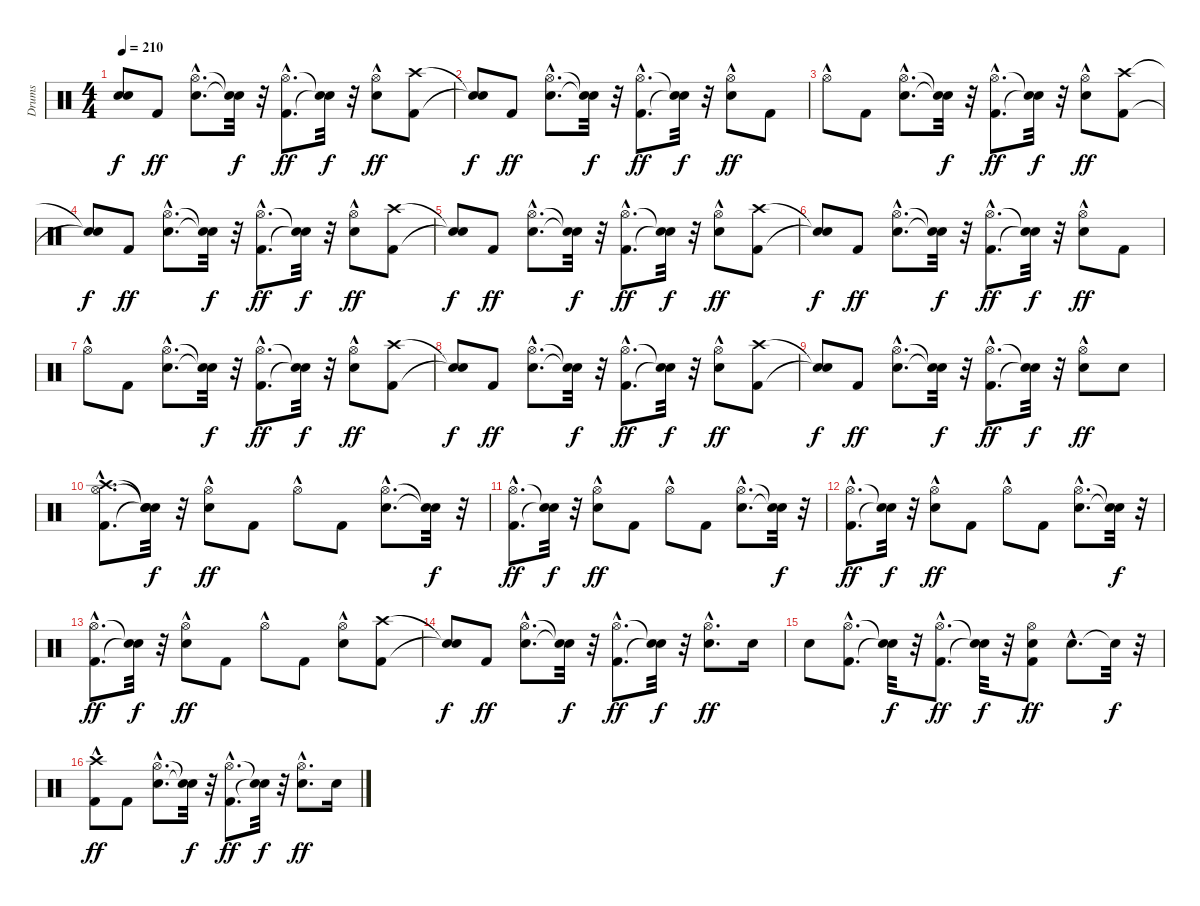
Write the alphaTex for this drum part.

\track ("Drums" "Drums") {instrument percussion}
\staff {score}
\articulation defaults
\ts (4 4)
\tempo 210
\clef neutral
\ks c
("Snare (hit)"{t} "Snare (hit)"{t}).8{dy f} "Kick (hit) 2".8{dy ff} ("Snare (hit) 2"{hac} "Hi-Hat (open)"{hac}).8{d} ("Snare (hit)"{t} "Snare (hit)"{t}).32{dy f} r.32 ("Kick (hit) 2"{hac} "Hi-Hat (open)"{hac}).8{d dy ff} ("Snare (hit)"{t} "Snare (hit)"{t}).32{dy f} r.32 ("Snare (hit) 2" "Hi-Hat (open)"{hac}).8{dy ff} ("Kick (hit) 2" "Crash high (hit)").8 |
("Snare (hit)"{t} "Snare (hit)"{t}).8{dy f} "Kick (hit) 2".8{dy ff} ("Snare (hit) 2"{hac} "Hi-Hat (open)"{hac}).8{d} ("Snare (hit)"{t} "Snare (hit)"{t}).32{dy f} r.32 ("Kick (hit) 2"{hac} "Hi-Hat (open)"{hac}).8{d dy ff} ("Snare (hit)"{t} "Snare (hit)"{t}).32{dy f} r.32 ("Snare (hit) 2" "Hi-Hat (open)"{hac}).8{dy ff} "Kick (hit) 2".8 |
"Hi-Hat (open)"{hac}.8 "Kick (hit) 2".8 ("Snare (hit) 2"{hac} "Hi-Hat (open)"{hac}).8{d} ("Snare (hit)"{t} "Snare (hit)"{t}).32{dy f} r.32 ("Kick (hit) 2"{hac} "Hi-Hat (open)"{hac}).8{d dy ff} ("Snare (hit)"{t} "Snare (hit)"{t}).32{dy f} r.32 ("Snare (hit) 2" "Hi-Hat (open)"{hac}).8{dy ff} ("Kick (hit) 2" "Crash high (hit)").8 |
("Snare (hit)"{t} "Snare (hit)"{t}).8{dy f} "Kick (hit) 2".8{dy ff} ("Snare (hit) 2"{hac} "Hi-Hat (open)"{hac}).8{d} ("Snare (hit)"{t} "Snare (hit)"{t}).32{dy f} r.32 ("Kick (hit) 2"{hac} "Hi-Hat (open)"{hac}).8{d dy ff} ("Snare (hit)"{t} "Snare (hit)"{t}).32{dy f} r.32 ("Snare (hit) 2" "Hi-Hat (open)"{hac}).8{dy ff} ("Kick (hit) 2" "Crash high (hit)").8 |
("Snare (hit)"{t} "Snare (hit)"{t}).8{dy f} "Kick (hit) 2".8{dy ff} ("Snare (hit) 2"{hac} "Hi-Hat (open)"{hac}).8{d} ("Snare (hit)"{t} "Snare (hit)"{t}).32{dy f} r.32 ("Kick (hit) 2"{hac} "Hi-Hat (open)"{hac}).8{d dy ff} ("Snare (hit)"{t} "Snare (hit)"{t}).32{dy f} r.32 ("Snare (hit) 2" "Hi-Hat (open)"{hac}).8{dy ff} ("Kick (hit) 2" "Crash high (hit)").8 |
("Snare (hit)"{t} "Snare (hit)"{t}).8{dy f} "Kick (hit) 2".8{dy ff} ("Snare (hit) 2"{hac} "Hi-Hat (open)"{hac}).8{d} ("Snare (hit)"{t} "Snare (hit)"{t}).32{dy f} r.32 ("Kick (hit) 2"{hac} "Hi-Hat (open)"{hac}).8{d dy ff} ("Snare (hit)"{t} "Snare (hit)"{t}).32{dy f} r.32 ("Snare (hit) 2" "Hi-Hat (open)"{hac}).8{dy ff} "Kick (hit) 2".8 |
"Hi-Hat (open)"{hac}.8 "Kick (hit) 2".8 ("Snare (hit) 2"{hac} "Hi-Hat (open)"{hac}).8{d} ("Snare (hit)"{t} "Snare (hit)"{t}).32{dy f} r.32 ("Kick (hit) 2"{hac} "Hi-Hat (open)"{hac}).8{d dy ff} ("Snare (hit)"{t} "Snare (hit)"{t}).32{dy f} r.32 ("Snare (hit) 2" "Hi-Hat (open)"{hac}).8{dy ff} ("Kick (hit) 2" "Crash high (hit)").8 |
("Snare (hit)"{t} "Snare (hit)"{t}).8{dy f} "Kick (hit) 2".8{dy ff} ("Snare (hit) 2"{hac} "Hi-Hat (open)"{hac}).8{d} ("Snare (hit)"{t} "Snare (hit)"{t}).32{dy f} r.32 ("Kick (hit) 2"{hac} "Hi-Hat (open)"{hac}).8{d dy ff} ("Snare (hit)"{t} "Snare (hit)"{t}).32{dy f} r.32 ("Snare (hit) 2" "Hi-Hat (open)"{hac}).8{dy ff} ("Kick (hit) 2" "Crash high (hit)").8 |
("Snare (hit)"{t} "Snare (hit)"{t}).8{dy f} "Kick (hit) 2".8{dy ff} ("Snare (hit) 2"{hac} "Hi-Hat (open)"{hac}).8{d} ("Snare (hit)"{t} "Snare (hit)"{t}).32{dy f} r.32 ("Kick (hit) 2"{hac} "Hi-Hat (open)"{hac}).8{d dy ff} ("Snare (hit)"{t} "Snare (hit)"{t}).32{dy f} r.32 ("Snare (hit) 2" "Hi-Hat (open)"{hac}).8{dy ff} "Snare (hit) 2".8 |
("Kick (hit) 2"{hac} "Hi-Hat (open)"{hac} "Crash high (hit)"{hac}).8{d} ("Snare (hit)"{t} "Snare (hit)"{t} "Snare (hit)"{t}).32{dy f} r.32 ("Snare (hit) 2" "Hi-Hat (open)"{hac}).8{dy ff} "Kick (hit) 2".8 "Hi-Hat (open)"{hac}.8 "Kick (hit) 2".8 ("Snare (hit) 2"{hac} "Hi-Hat (open)"{hac}).8{d} ("Snare (hit)"{t} "Snare (hit)"{t}).32{dy f} r.32 |
("Kick (hit) 2"{hac} "Hi-Hat (open)"{hac}).8{d dy ff} ("Snare (hit)"{t} "Snare (hit)"{t}).32{dy f} r.32 ("Snare (hit) 2" "Hi-Hat (open)"{hac}).8{dy ff} "Kick (hit) 2".8 "Hi-Hat (open)"{hac}.8 "Kick (hit) 2".8 ("Snare (hit) 2"{hac} "Hi-Hat (open)"{hac}).8{d} ("Snare (hit)"{t} "Snare (hit)"{t}).32{dy f} r.32 |
("Kick (hit) 2"{hac} "Hi-Hat (open)"{hac}).8{d dy ff} ("Snare (hit)"{t} "Snare (hit)"{t}).32{dy f} r.32 ("Snare (hit) 2" "Hi-Hat (open)"{hac}).8{dy ff} "Kick (hit) 2".8 "Hi-Hat (open)"{hac}.8 "Kick (hit) 2".8 ("Snare (hit) 2"{hac} "Hi-Hat (open)"{hac}).8{d} ("Snare (hit)"{t} "Snare (hit)"{t}).32{dy f} r.32 |
("Kick (hit) 2"{hac} "Hi-Hat (open)"{hac}).8{d dy ff} ("Snare (hit)"{t} "Snare (hit)"{t}).32{dy f} r.32 ("Snare (hit) 2" "Hi-Hat (open)"{hac}).8{dy ff} "Kick (hit) 2".8 "Hi-Hat (open)"{hac}.8 "Kick (hit) 2".8 ("Snare (hit) 2" "Hi-Hat (open)"{hac}).8 ("Kick (hit) 2" "Crash high (hit)").8 |
("Snare (hit)"{t} "Snare (hit)"{t}).8{dy f} "Kick (hit) 2".8{dy ff} ("Snare (hit) 2"{hac} "Hi-Hat (open)"{hac}).8{d} ("Snare (hit)"{t} "Snare (hit)"{t}).32{dy f} r.32 ("Kick (hit) 2"{hac} "Hi-Hat (open)"{hac}).8{d dy ff} ("Snare (hit)"{t} "Snare (hit)"{t}).32{dy f} r.32 ("Snare (hit) 2"{hac} "Hi-Hat (open)"{hac}).8{d dy ff} "Snare (hit) 2".16 |
"Snare (hit) 2".8 ("Kick (hit) 2"{hac} "Hi-Hat (open)"{hac}).8{d} ("Snare (hit)"{t} "Snare (hit)"{t}).32{dy f} r.32 ("Kick (hit) 2"{hac} "Hi-Hat (open)"{hac}).8{d dy ff} ("Snare (hit)"{t} "Snare (hit)"{t}).32{dy f} r.32 ("Kick (hit) 2" "Snare (hit) 2" "Hi-Hat (open)").8{dy ff} "Snare (hit) 2"{hac}.8{d} "Snare (hit)"{t}.32{dy f} r.32 |
("Kick (hit) 2" "Crash high (hit)"{hac}).8{dy ff} "Kick (hit) 2".8 ("Snare (hit) 2"{hac} "Hi-Hat (open)"{hac}).8{d} ("Snare (hit)"{t} "Snare (hit)"{t}).32{dy f} r.32 ("Kick (hit) 2"{hac} "Hi-Hat (open)"{hac}).8{d dy ff} ("Snare (hit)"{t} "Snare (hit)"{t}).32{dy f} r.32 ("Snare (hit) 2"{hac} "Hi-Hat (open)"{hac}).8{d dy ff} "Snare (hit) 2".16
